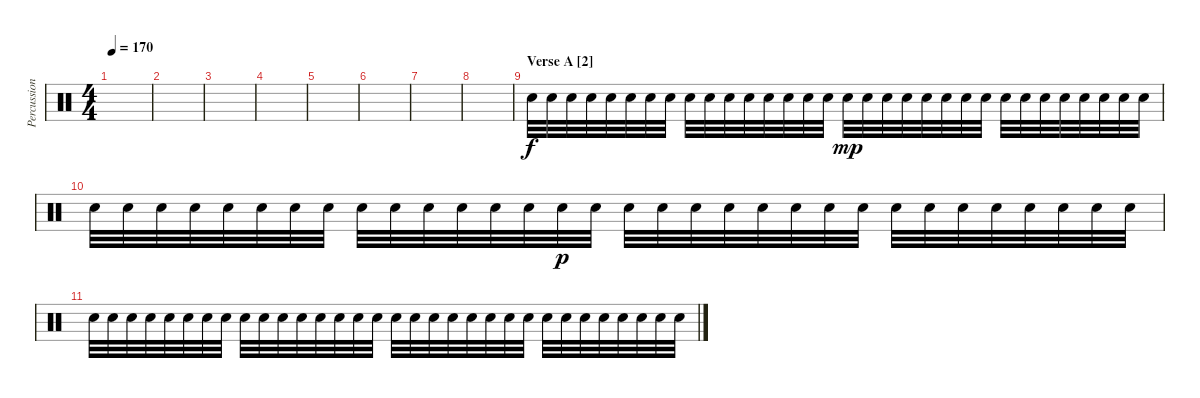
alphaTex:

\track ("Percussion" "Percussion") {instrument percussion}
\staff {score}
\articulation defaults
\ts (4 4)
\tempo 170
\clef neutral
\ks c
|
|
|
|
|
|
|
|
\section ("" "Verse A [2]")
"Electric Snare (hit)".32 "Electric Snare (hit)".32 "Electric Snare (hit)".32 "Electric Snare (hit)".32 "Electric Snare (hit)".32 "Electric Snare (hit)".32 "Electric Snare (hit)".32 "Electric Snare (hit)".32 "Electric Snare (hit)".32 "Electric Snare (hit)".32 "Electric Snare (hit)".32 "Electric Snare (hit)".32 "Electric Snare (hit)".32 "Electric Snare (hit)".32 "Electric Snare (hit)".32 "Electric Snare (hit)".32 "Electric Snare (hit)".32{dy mp} "Electric Snare (hit)".32 "Electric Snare (hit)".32 "Electric Snare (hit)".32 "Electric Snare (hit)".32 "Electric Snare (hit)".32 "Electric Snare (hit)".32 "Electric Snare (hit)".32 "Electric Snare (hit)".32 "Electric Snare (hit)".32 "Electric Snare (hit)".32 "Electric Snare (hit)".32 "Electric Snare (hit)".32 "Electric Snare (hit)".32 "Electric Snare (hit)".32 "Electric Snare (hit)".32 |
"Electric Snare (hit)".32 "Electric Snare (hit)".32 "Electric Snare (hit)".32 "Electric Snare (hit)".32 "Electric Snare (hit)".32 "Electric Snare (hit)".32 "Electric Snare (hit)".32 "Electric Snare (hit)".32 "Electric Snare (hit)".32 "Electric Snare (hit)".32 "Electric Snare (hit)".32 "Electric Snare (hit)".32 "Electric Snare (hit)".32 "Electric Snare (hit)".32 "Electric Snare (hit)".32{dy p} "Electric Snare (hit)".32 "Electric Snare (hit)".32 "Electric Snare (hit)".32 "Electric Snare (hit)".32 "Electric Snare (hit)".32 "Electric Snare (hit)".32 "Electric Snare (hit)".32 "Electric Snare (hit)".32 "Electric Snare (hit)".32 "Electric Snare (hit)".32 "Electric Snare (hit)".32 "Electric Snare (hit)".32 "Electric Snare (hit)".32 "Electric Snare (hit)".32 "Electric Snare (hit)".32 "Electric Snare (hit)".32 "Electric Snare (hit)".32 |
"Electric Snare (hit)".32 "Electric Snare (hit)".32 "Electric Snare (hit)".32 "Electric Snare (hit)".32 "Electric Snare (hit)".32 "Electric Snare (hit)".32 "Electric Snare (hit)".32 "Electric Snare (hit)".32 "Electric Snare (hit)".32 "Electric Snare (hit)".32 "Electric Snare (hit)".32 "Electric Snare (hit)".32 "Electric Snare (hit)".32 "Electric Snare (hit)".32 "Electric Snare (hit)".32 "Electric Snare (hit)".32 "Electric Snare (hit)".32 "Electric Snare (hit)".32 "Electric Snare (hit)".32 "Electric Snare (hit)".32 "Electric Snare (hit)".32 "Electric Snare (hit)".32 "Electric Snare (hit)".32 "Electric Snare (hit)".32 "Electric Snare (hit)".32 "Electric Snare (hit)".32 "Electric Snare (hit)".32 "Electric Snare (hit)".32 "Electric Snare (hit)".32 "Electric Snare (hit)".32 "Electric Snare (hit)".32 "Electric Snare (hit)".32
